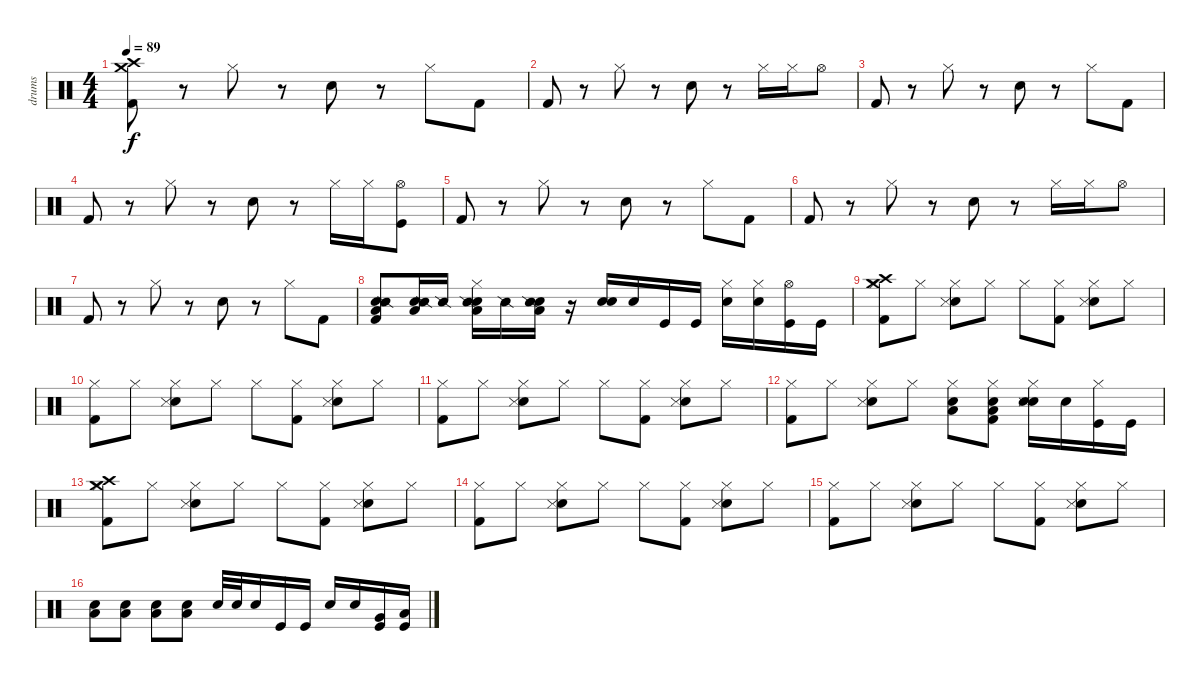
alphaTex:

\track ("drums" "drums") {instrument percussion}
\staff {score}
\articulation defaults
\ts (4 4)
\tempo 89
\clef neutral
\ks c
("Crash medium (hit)" "Crash high (hit)" "Kick (hit) 2").8{dy f} r.8 "Hi-Hat (closed)".8 r.8 "Hand Clap (hit)".8 r.8 "Hi-Hat (closed)".8 "Kick (hit) 2".8 |
"Kick (hit) 2".8 r.8 "Hi-Hat (closed)".8 r.8 "Hand Clap (hit)".8 r.8 "Hi-Hat (closed)".16 "Hi-Hat (closed)".16 "Hi-Hat (open)".8 |
"Kick (hit) 2".8 r.8 "Hi-Hat (closed)".8 r.8 "Hand Clap (hit)".8 r.8 "Hi-Hat (closed)".8 "Kick (hit) 2".8 |
"Kick (hit) 2".8 r.8 "Hi-Hat (closed)".8 r.8 "Hand Clap (hit)".8 r.8 "Hi-Hat (closed)".16 "Hi-Hat (closed)".16 ("Hi-Hat (open)" "Kick (hit)").8 |
"Kick (hit) 2".8 r.8 "Hi-Hat (closed)".8 r.8 "Hand Clap (hit)".8 r.8 "Hi-Hat (closed)".8 "Kick (hit) 2".8 |
"Kick (hit) 2".8 r.8 "Hi-Hat (closed)".8 r.8 "Hand Clap (hit)".8 r.8 "Hi-Hat (closed)".16 "Hi-Hat (closed)".16 "Hi-Hat (open)".8 |
"Kick (hit) 2".8 r.8 "Hi-Hat (closed)".8 r.8 "Hand Clap (hit)".8 r.8 "Hi-Hat (closed)".8 "Kick (hit) 2".8 |
("Low Floor Tom (hit)" "Electric Snare (hit)" "Snare (side stick) 2" "Kick (hit) 2").8 ("Low Floor Tom (hit)" "Electric Snare (hit)" "Snare (side stick) 2").16 "Snare (side stick) 2".16 ("Low Floor Tom (hit)" "Electric Snare (hit)" "Snare (side stick) 2" "Hi-Hat (closed)").16 "Snare (side stick) 2".16 ("Low Floor Tom (hit)" "Electric Snare (hit)" "Snare (side stick) 2").16 r.16 ("Electric Snare (hit)" "Hand Clap (hit)").16 "Electric Snare (hit)".16 "Kick (hit)".16 "Kick (hit)".16 ("Electric Snare (hit)" "Hi-Hat (closed)").16 ("Electric Snare (hit)" "Hi-Hat (closed)").16 ("Kick (hit)" "Hi-Hat (open)").16 "Kick (hit)".16 |
("Kick (hit) 2" "Hi-Hat (closed)" "Crash medium (hit)" "Crash high (hit)").8 "Hi-Hat (closed)".8 ("Snare (hit) 2" "Snare (side stick) 3" "Hi-Hat (closed)").8 "Hi-Hat (closed)".8 "Hi-Hat (closed)".8 ("Kick (hit) 2" "Hi-Hat (closed)").8 ("Snare (hit) 2" "Snare (side stick) 3" "Hi-Hat (closed)").8 "Hi-Hat (closed)".8 |
("Kick (hit) 2" "Hi-Hat (closed)").8 "Hi-Hat (closed)".8 ("Snare (hit) 2" "Snare (side stick) 3" "Hi-Hat (closed)").8 "Hi-Hat (closed)".8 "Hi-Hat (closed)".8 ("Kick (hit) 2" "Hi-Hat (closed)").8 ("Snare (hit) 2" "Snare (side stick) 3" "Hi-Hat (closed)").8 "Hi-Hat (closed)".8 |
("Kick (hit) 2" "Hi-Hat (closed)").8 "Hi-Hat (closed)".8 ("Snare (hit) 2" "Snare (side stick) 3" "Hi-Hat (closed)").8 "Hi-Hat (closed)".8 "Hi-Hat (closed)".8 ("Kick (hit) 2" "Hi-Hat (closed)").8 ("Snare (hit) 2" "Snare (side stick) 3" "Hi-Hat (closed)").8 "Hi-Hat (closed)".8 |
("Kick (hit) 2" "Hi-Hat (closed)").8 "Hi-Hat (closed)".8 ("Snare (hit) 2" "Snare (side stick) 3" "Hi-Hat (closed)").8 "Hi-Hat (closed)".8 ("Electric Snare (hit)" "Low Floor Tom (hit)" "Hi-Hat (closed)").8 ("Electric Snare (hit)" "Low Floor Tom (hit)" "Kick (hit) 2" "Hi-Hat (closed)").8 ("Snare (hit) 2" "Snare (side stick) 3" "Hi-Hat (closed)" "Electric Snare (hit)").16 "Electric Snare (hit)".16 ("Kick (hit)" "Hi-Hat (closed)").16 "Kick (hit)".16 |
("Kick (hit) 2" "Hi-Hat (closed)" "Crash medium (hit)" "Crash high (hit)").8 "Hi-Hat (closed)".8 ("Snare (hit) 2" "Snare (side stick) 3" "Hi-Hat (closed)").8 "Hi-Hat (closed)".8 "Hi-Hat (closed)".8 ("Kick (hit) 2" "Hi-Hat (closed)").8 ("Snare (hit) 2" "Snare (side stick) 3" "Hi-Hat (closed)").8 "Hi-Hat (closed)".8 |
("Kick (hit) 2" "Hi-Hat (closed)").8 "Hi-Hat (closed)".8 ("Snare (hit) 2" "Snare (side stick) 3" "Hi-Hat (closed)").8 "Hi-Hat (closed)".8 "Hi-Hat (closed)".8 ("Kick (hit) 2" "Hi-Hat (closed)").8 ("Snare (hit) 2" "Snare (side stick) 3" "Hi-Hat (closed)").8 "Hi-Hat (closed)".8 |
("Kick (hit) 2" "Hi-Hat (closed)").8 "Hi-Hat (closed)".8 ("Snare (hit) 2" "Snare (side stick) 3" "Hi-Hat (closed)").8 "Hi-Hat (closed)".8 "Hi-Hat (closed)".8 ("Kick (hit) 2" "Hi-Hat (closed)").8 ("Snare (hit) 2" "Snare (side stick) 3" "Hi-Hat (closed)").8 "Hi-Hat (closed)".8 |
("Low Floor Tom (hit)" "Electric Snare (hit)").8 ("Low Floor Tom (hit)" "Electric Snare (hit)").8 ("Low Floor Tom (hit)" "Electric Snare (hit)").8 ("Low Floor Tom (hit)" "Electric Snare (hit)").8 "Electric Snare (hit)".32 "Electric Snare (hit)".32 "Electric Snare (hit)".16 "Kick (hit)".16 "Kick (hit)".16 "Electric Snare (hit)".16 "Electric Snare (hit)".16 ("Very Low Tom (hit)" "Kick (hit)").16 ("Low Floor Tom (hit)" "Kick (hit)").16
